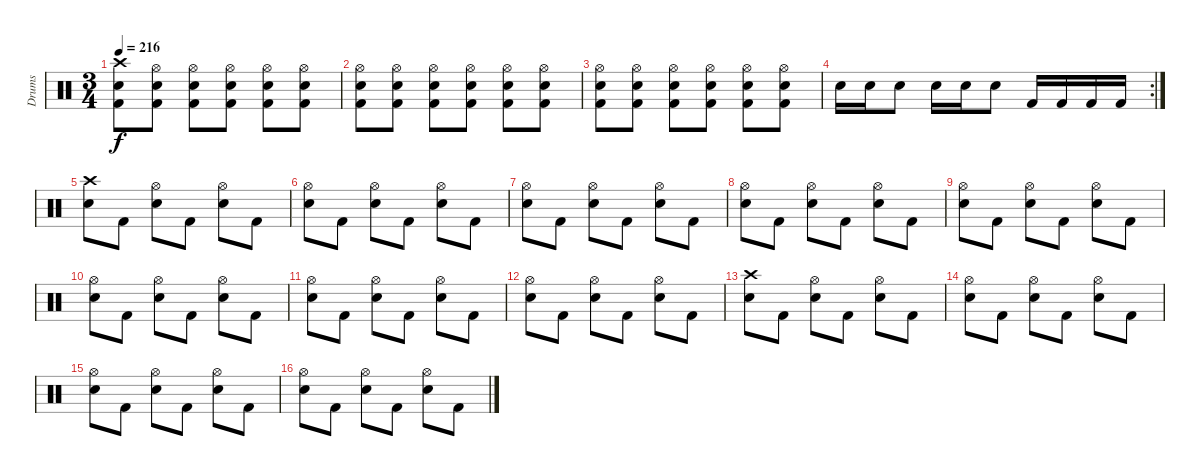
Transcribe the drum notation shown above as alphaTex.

\track ("Drums" "Drums") {instrument percussion}
\staff {score}
\articulation defaults
\ts (3 4)
\tempo 216
\clef neutral
\ks c
("Crash high (hit)" "Electric Snare (hit)" "Kick (hit) 2").8{dy f} ("Hi-Hat (open)" "Electric Snare (hit)" "Kick (hit) 2").8 ("Hi-Hat (open)" "Electric Snare (hit)" "Kick (hit) 2").8 ("Hi-Hat (open)" "Electric Snare (hit)" "Kick (hit) 2").8 ("Hi-Hat (open)" "Electric Snare (hit)" "Kick (hit) 2").8 ("Hi-Hat (open)" "Electric Snare (hit)" "Kick (hit) 2").8 |
("Hi-Hat (open)" "Electric Snare (hit)" "Kick (hit) 2").8 ("Hi-Hat (open)" "Electric Snare (hit)" "Kick (hit) 2").8 ("Hi-Hat (open)" "Electric Snare (hit)" "Kick (hit) 2").8 ("Hi-Hat (open)" "Electric Snare (hit)" "Kick (hit) 2").8 ("Hi-Hat (open)" "Electric Snare (hit)" "Kick (hit) 2").8 ("Hi-Hat (open)" "Electric Snare (hit)" "Kick (hit) 2").8 |
("Hi-Hat (open)" "Electric Snare (hit)" "Kick (hit) 2").8 ("Hi-Hat (open)" "Electric Snare (hit)" "Kick (hit) 2").8 ("Hi-Hat (open)" "Electric Snare (hit)" "Kick (hit) 2").8 ("Hi-Hat (open)" "Electric Snare (hit)" "Kick (hit) 2").8 ("Hi-Hat (open)" "Electric Snare (hit)" "Kick (hit) 2").8 ("Hi-Hat (open)" "Electric Snare (hit)" "Kick (hit) 2").8 |
\rc 2 "Electric Snare (hit)".16 "Electric Snare (hit)".16 "Electric Snare (hit)".8 "Electric Snare (hit)".16 "Electric Snare (hit)".16 "Electric Snare (hit)".8 "Kick (hit) 2".16 "Kick (hit) 2".16 "Kick (hit) 2".16 "Kick (hit) 2".16
|
("Crash high (hit)" "Electric Snare (hit)").8 "Kick (hit) 2".8 ("Hi-Hat (open)" "Electric Snare (hit)").8 "Kick (hit) 2".8 ("Hi-Hat (open)" "Electric Snare (hit)").8 "Kick (hit) 2".8 |
("Hi-Hat (open)" "Electric Snare (hit)").8 "Kick (hit) 2".8 ("Hi-Hat (open)" "Electric Snare (hit)").8 "Kick (hit) 2".8 ("Hi-Hat (open)" "Electric Snare (hit)").8 "Kick (hit) 2".8 |
("Hi-Hat (open)" "Electric Snare (hit)").8 "Kick (hit) 2".8 ("Hi-Hat (open)" "Electric Snare (hit)").8 "Kick (hit) 2".8 ("Hi-Hat (open)" "Electric Snare (hit)").8 "Kick (hit) 2".8 |
("Hi-Hat (open)" "Electric Snare (hit)").8 "Kick (hit) 2".8 ("Hi-Hat (open)" "Electric Snare (hit)").8 "Kick (hit) 2".8 ("Hi-Hat (open)" "Electric Snare (hit)").8 "Kick (hit) 2".8 |
("Hi-Hat (open)" "Electric Snare (hit)").8 "Kick (hit) 2".8 ("Hi-Hat (open)" "Electric Snare (hit)").8 "Kick (hit) 2".8 ("Hi-Hat (open)" "Electric Snare (hit)").8 "Kick (hit) 2".8 |
("Hi-Hat (open)" "Electric Snare (hit)").8 "Kick (hit) 2".8 ("Hi-Hat (open)" "Electric Snare (hit)").8 "Kick (hit) 2".8 ("Hi-Hat (open)" "Electric Snare (hit)").8 "Kick (hit) 2".8 |
("Hi-Hat (open)" "Electric Snare (hit)").8 "Kick (hit) 2".8 ("Hi-Hat (open)" "Electric Snare (hit)").8 "Kick (hit) 2".8 ("Hi-Hat (open)" "Electric Snare (hit)").8 "Kick (hit) 2".8 |
("Hi-Hat (open)" "Electric Snare (hit)").8 "Kick (hit) 2".8 ("Hi-Hat (open)" "Electric Snare (hit)").8 "Kick (hit) 2".8 ("Hi-Hat (open)" "Electric Snare (hit)").8 "Kick (hit) 2".8 |
("Crash high (hit)" "Electric Snare (hit)").8 "Kick (hit) 2".8 ("Hi-Hat (open)" "Electric Snare (hit)").8 "Kick (hit) 2".8 ("Hi-Hat (open)" "Electric Snare (hit)").8 "Kick (hit) 2".8 |
("Hi-Hat (open)" "Electric Snare (hit)").8 "Kick (hit) 2".8 ("Hi-Hat (open)" "Electric Snare (hit)").8 "Kick (hit) 2".8 ("Hi-Hat (open)" "Electric Snare (hit)").8 "Kick (hit) 2".8 |
("Hi-Hat (open)" "Electric Snare (hit)").8 "Kick (hit) 2".8 ("Hi-Hat (open)" "Electric Snare (hit)").8 "Kick (hit) 2".8 ("Hi-Hat (open)" "Electric Snare (hit)").8 "Kick (hit) 2".8 |
("Hi-Hat (open)" "Electric Snare (hit)").8 "Kick (hit) 2".8 ("Hi-Hat (open)" "Electric Snare (hit)").8 "Kick (hit) 2".8 ("Hi-Hat (open)" "Electric Snare (hit)").8 "Kick (hit) 2".8
